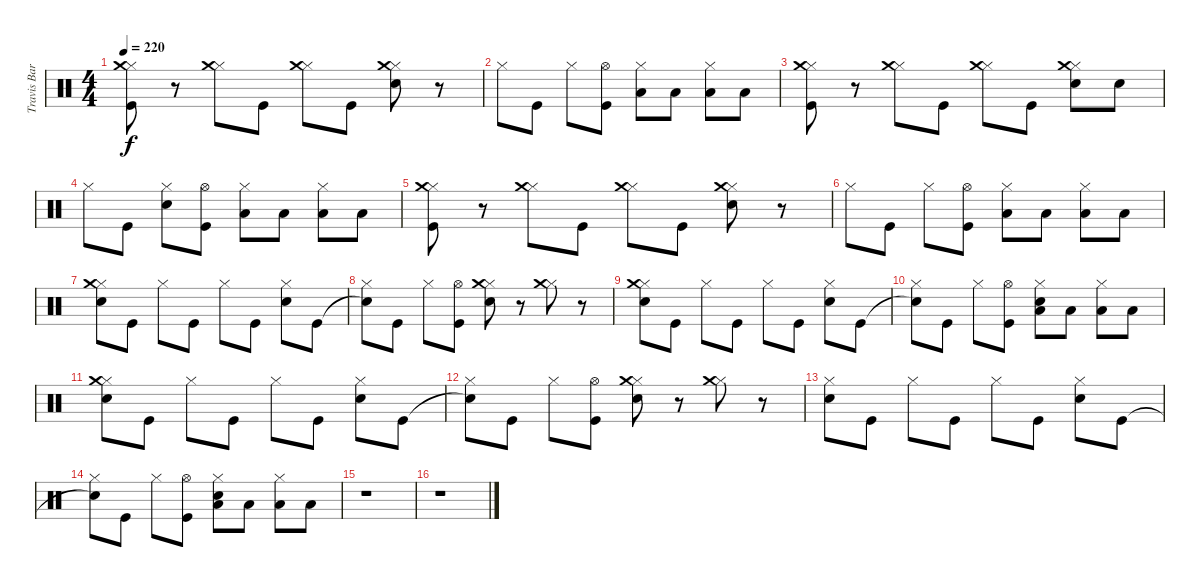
\track ("Travis Barker (Drums)" "Travis Bar") {instrument percussion}
\staff {score}
\articulation defaults
\ts (4 4)
\tempo 220
\clef neutral
\ks c
("Kick (hit)" "Hi-Hat (closed)" "Crash medium (hit)").8{dy f} r.8 ("Hi-Hat (closed)" "Crash medium (hit)").8 "Kick (hit)".8 ("Hi-Hat (closed)" "Crash medium (hit)").8 "Kick (hit)".8 ("Electric Snare (hit)" "Hi-Hat (closed)" "Crash medium (hit)").8 r.8 |
"Hi-Hat (closed)".8 "Kick (hit)".8 "Hi-Hat (closed)".8 ("Kick (hit)" "Hi-Hat (open)").8 ("Low Tom (hit)" "Hi-Hat (closed)").8 "Low Tom (hit)".8 ("Low Floor Tom (hit)" "Hi-Hat (closed)").8 "Low Floor Tom (hit)".8 |
("Kick (hit)" "Hi-Hat (closed)" "Crash medium (hit)").8 r.8 ("Hi-Hat (closed)" "Crash medium (hit)").8 "Kick (hit)".8 ("Hi-Hat (closed)" "Crash medium (hit)").8 "Kick (hit)".8 ("Electric Snare (hit)" "Hi-Hat (closed)" "Crash medium (hit)").8 "Electric Snare (hit)".8 |
"Hi-Hat (closed)".8 "Kick (hit)".8 ("Electric Snare (hit)" "Hi-Hat (closed)").8 ("Kick (hit)" "Hi-Hat (open)").8 ("Low Tom (hit)" "Hi-Hat (closed)").8 "Low Tom (hit)".8 ("Low Floor Tom (hit)" "Hi-Hat (closed)").8 "Low Floor Tom (hit)".8 |
("Kick (hit)" "Hi-Hat (closed)" "Crash medium (hit)").8 r.8 ("Hi-Hat (closed)" "Crash medium (hit)").8 "Kick (hit)".8 ("Hi-Hat (closed)" "Crash medium (hit)").8 "Kick (hit)".8 ("Electric Snare (hit)" "Hi-Hat (closed)" "Crash medium (hit)").8 r.8 |
"Hi-Hat (closed)".8 "Kick (hit)".8 "Hi-Hat (closed)".8 ("Kick (hit)" "Hi-Hat (open)").8 ("Low Tom (hit)" "Hi-Hat (closed)").8 "Low Tom (hit)".8 ("Low Floor Tom (hit)" "Hi-Hat (closed)").8 "Low Floor Tom (hit)".8 |
("Electric Snare (hit)" "Hi-Hat (closed)" "Crash medium (hit)").8 "Kick (hit)".8 "Hi-Hat (closed)".8 "Kick (hit)".8 "Hi-Hat (closed)".8 "Kick (hit)".8 ("Electric Snare (hit)" "Hi-Hat (closed)").8 "Kick (hit)".8 |
("Snare (hit)"{t} "Hi-Hat (closed)").8 "Kick (hit)".8 "Hi-Hat (closed)".8 ("Kick (hit)" "Hi-Hat (open)").8 ("Electric Snare (hit)" "Hi-Hat (closed)" "Crash medium (hit)").8 r.8 ("Hi-Hat (closed)" "Crash medium (hit)").8 r.8 |
("Electric Snare (hit)" "Hi-Hat (closed)" "Crash medium (hit)").8 "Kick (hit)".8 "Hi-Hat (closed)".8 "Kick (hit)".8 "Hi-Hat (closed)".8 "Kick (hit)".8 ("Electric Snare (hit)" "Hi-Hat (closed)").8 "Kick (hit)".8 |
("Snare (hit)"{t} "Hi-Hat (closed)").8 "Kick (hit)".8 "Hi-Hat (closed)".8 ("Kick (hit)" "Hi-Hat (open)").8 ("Electric Snare (hit)" "Low Tom (hit)" "Hi-Hat (closed)").8 "Low Tom (hit)".8 ("Low Floor Tom (hit)" "Hi-Hat (closed)").8 "Low Floor Tom (hit)".8 |
("Electric Snare (hit)" "Hi-Hat (closed)" "Crash medium (hit)").8 "Kick (hit)".8 "Hi-Hat (closed)".8 "Kick (hit)".8 "Hi-Hat (closed)".8 "Kick (hit)".8 ("Electric Snare (hit)" "Hi-Hat (closed)").8 "Kick (hit)".8 |
("Snare (hit)"{t} "Hi-Hat (closed)").8 "Kick (hit)".8 "Hi-Hat (closed)".8 ("Kick (hit)" "Hi-Hat (open)").8 ("Electric Snare (hit)" "Hi-Hat (closed)" "Crash medium (hit)").8 r.8 ("Hi-Hat (closed)" "Crash medium (hit)").8 r.8 |
("Electric Snare (hit)" "Hi-Hat (closed)").8 "Kick (hit)".8 "Hi-Hat (closed)".8 "Kick (hit)".8 "Hi-Hat (closed)".8 "Kick (hit)".8 ("Electric Snare (hit)" "Hi-Hat (closed)").8 "Kick (hit)".8 |
("Snare (hit)"{t} "Hi-Hat (closed)").8 "Kick (hit)".8 "Hi-Hat (closed)".8 ("Kick (hit)" "Hi-Hat (open)").8 ("Electric Snare (hit)" "Low Tom (hit)" "Hi-Hat (closed)").8 "Low Tom (hit)".8 ("Low Floor Tom (hit)" "Hi-Hat (closed)").8 "Low Floor Tom (hit)".8 |
r.1 |
r.1
